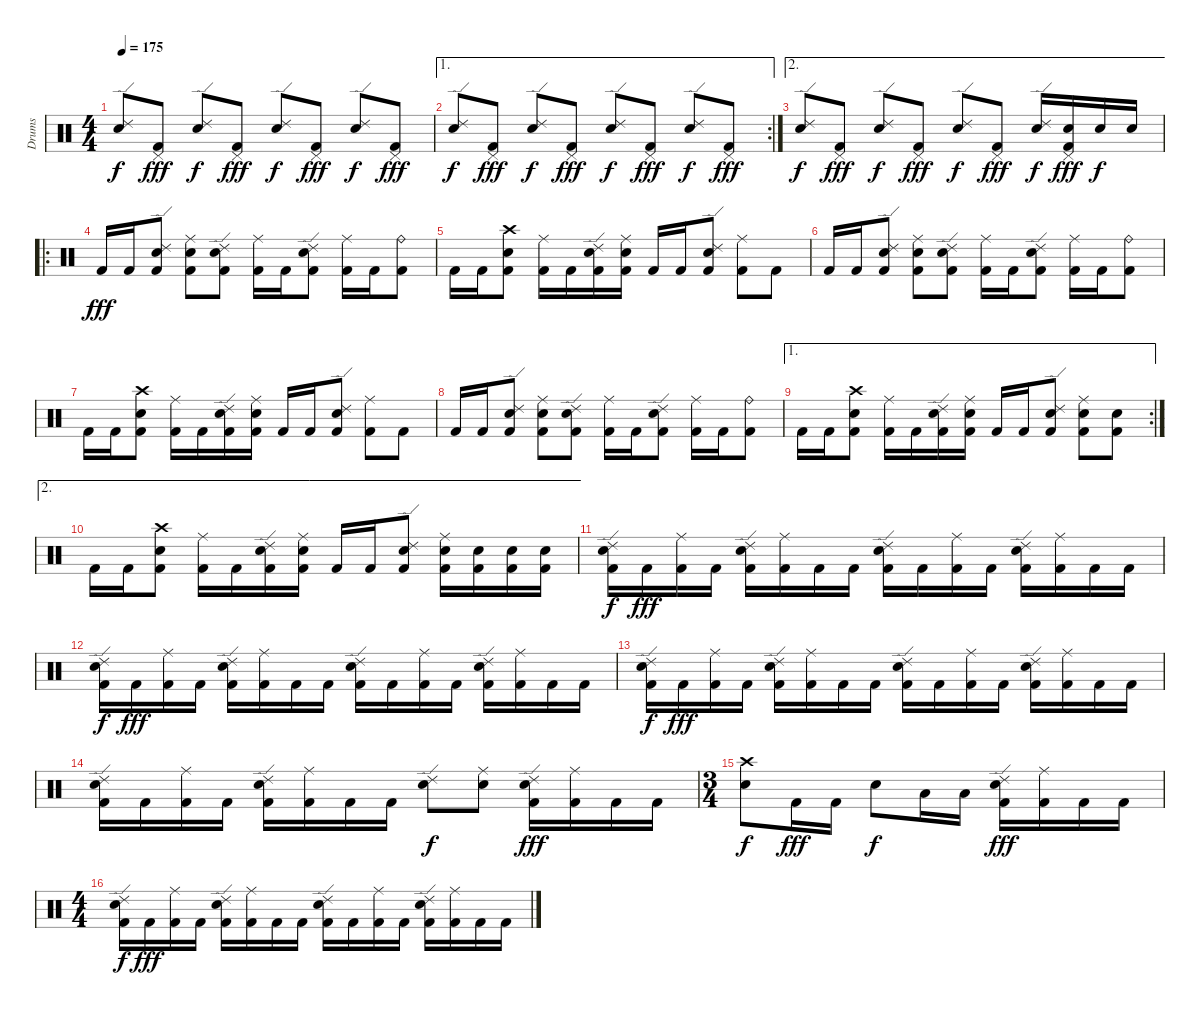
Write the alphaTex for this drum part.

\track ("Drums" "Drums") {instrument percussion}
\staff {score}
\articulation defaults
\ts (4 4)
\tempo 175
\clef neutral
\ks c
("Ride (edge) 2" "Electric Snare (hit)").8{dy f} ("Pedal Hi-Hat (hit)" "Kick (hit) 2").8{dy fff} ("Ride (edge) 2" "Electric Snare (hit)").8{dy f} ("Pedal Hi-Hat (hit)" "Kick (hit) 2").8{dy fff} ("Ride (edge) 2" "Electric Snare (hit)").8{dy f} ("Pedal Hi-Hat (hit)" "Kick (hit) 2").8{dy fff} ("Ride (edge) 2" "Electric Snare (hit)").8{dy f} ("Pedal Hi-Hat (hit)" "Kick (hit) 2").8{dy fff} |
\ae 1
\rc 2
("Ride (edge) 2" "Electric Snare (hit)").8{dy f} ("Pedal Hi-Hat (hit)" "Kick (hit) 2").8{dy fff} ("Ride (edge) 2" "Electric Snare (hit)").8{dy f} ("Pedal Hi-Hat (hit)" "Kick (hit) 2").8{dy fff} ("Ride (edge) 2" "Electric Snare (hit)").8{dy f} ("Pedal Hi-Hat (hit)" "Kick (hit) 2").8{dy fff} ("Ride (edge) 2" "Electric Snare (hit)").8{dy f} ("Pedal Hi-Hat (hit)" "Kick (hit) 2").8{dy fff} |
\ae 2
("Ride (edge) 2" "Electric Snare (hit)").8{dy f} ("Pedal Hi-Hat (hit)" "Kick (hit) 2").8{dy fff} ("Ride (edge) 2" "Electric Snare (hit)").8{dy f} ("Pedal Hi-Hat (hit)" "Kick (hit) 2").8{dy fff} ("Ride (edge) 2" "Electric Snare (hit)").8{dy f} ("Pedal Hi-Hat (hit)" "Kick (hit) 2").8{dy fff} ("Ride (edge) 2" "Electric Snare (hit)").16{dy f} ("Pedal Hi-Hat (hit)" "Electric Snare (hit)" "Kick (hit) 2").16{dy fff} "Electric Snare (hit)".16{dy f} "Electric Snare (hit)".16 |
\ro "Kick (hit) 2".16{dy fff} "Kick (hit) 2".16
("Ride (edge) 2" "Electric Snare (hit)" "Kick (hit) 2").8 ("Ride (middle)" "Electric Snare (hit)" "Kick (hit) 2").8 ("Ride (edge) 2" "Electric Snare (hit)" "Kick (hit) 2").8 ("Ride (middle)" "Kick (hit) 2").16 "Kick (hit) 2".16 ("Ride (edge) 2" "Electric Snare (hit)" "Kick (hit) 2").8 ("Ride (middle)" "Kick (hit) 2").16 "Kick (hit) 2".16 ("Ride (bell)" "Kick (hit) 2").8 |
"Kick (hit) 2".16 "Kick (hit) 2".16 ("Crash high (hit)" "Electric Snare (hit)" "Kick (hit) 2").8 ("Ride (middle)" "Kick (hit) 2").16 "Kick (hit) 2".16 ("Ride (edge) 2" "Electric Snare (hit)" "Kick (hit) 2").16 ("Ride (middle)" "Electric Snare (hit)" "Kick (hit) 2").16 "Kick (hit) 2".16 "Kick (hit) 2".16 ("Ride (edge) 2" "Electric Snare (hit)" "Kick (hit) 2").8 ("Ride (middle)" "Kick (hit) 2").8 "Kick (hit) 2".8 |
"Kick (hit) 2".16 "Kick (hit) 2".16 ("Ride (edge) 2" "Electric Snare (hit)" "Kick (hit) 2").8 ("Ride (middle)" "Electric Snare (hit)" "Kick (hit) 2").8 ("Ride (edge) 2" "Electric Snare (hit)" "Kick (hit) 2").8 ("Ride (middle)" "Kick (hit) 2").16 "Kick (hit) 2".16 ("Ride (edge) 2" "Electric Snare (hit)" "Kick (hit) 2").8 ("Ride (middle)" "Kick (hit) 2").16 "Kick (hit) 2".16 ("Ride (bell)" "Kick (hit) 2").8 |
"Kick (hit) 2".16 "Kick (hit) 2".16 ("Crash high (hit)" "Electric Snare (hit)" "Kick (hit) 2").8 ("Ride (middle)" "Kick (hit) 2").16 "Kick (hit) 2".16 ("Ride (edge) 2" "Electric Snare (hit)" "Kick (hit) 2").16 ("Ride (middle)" "Electric Snare (hit)" "Kick (hit) 2").16 "Kick (hit) 2".16 "Kick (hit) 2".16 ("Ride (edge) 2" "Electric Snare (hit)" "Kick (hit) 2").8 ("Ride (middle)" "Kick (hit) 2").8 "Kick (hit) 2".8 |
"Kick (hit) 2".16 "Kick (hit) 2".16 ("Ride (edge) 2" "Electric Snare (hit)" "Kick (hit) 2").8 ("Ride (middle)" "Electric Snare (hit)" "Kick (hit) 2").8 ("Ride (edge) 2" "Electric Snare (hit)" "Kick (hit) 2").8 ("Ride (middle)" "Kick (hit) 2").16 "Kick (hit) 2".16 ("Ride (edge) 2" "Electric Snare (hit)" "Kick (hit) 2").8 ("Ride (middle)" "Kick (hit) 2").16 "Kick (hit) 2".16 ("Ride (bell)" "Kick (hit) 2").8 |
\ae 1
\rc 2 "Kick (hit) 2".16 "Kick (hit) 2".16
("Crash high (hit)" "Electric Snare (hit)" "Kick (hit) 2").8 ("Ride (middle)" "Kick (hit) 2").16 "Kick (hit) 2".16 ("Ride (edge) 2" "Electric Snare (hit)" "Kick (hit) 2").16 ("Ride (middle)" "Electric Snare (hit)" "Kick (hit) 2").16 "Kick (hit) 2".16 "Kick (hit) 2".16 ("Ride (edge) 2" "Electric Snare (hit)" "Kick (hit) 2").8 ("Ride (middle)" "Electric Snare (hit)" "Kick (hit) 2").8 ("Electric Snare (hit)" "Kick (hit) 2").8 |
\ae 2 "Kick (hit) 2".16 "Kick (hit) 2".16
("Crash high (hit)" "Electric Snare (hit)" "Kick (hit) 2").8 ("Ride (middle)" "Kick (hit) 2").16 "Kick (hit) 2".16 ("Ride (edge) 2" "Electric Snare (hit)" "Kick (hit) 2").16 ("Ride (middle)" "Electric Snare (hit)" "Kick (hit) 2").16 "Kick (hit) 2".16 "Kick (hit) 2".16 ("Ride (edge) 2" "Electric Snare (hit)" "Kick (hit) 2").8 ("Ride (middle)" "Electric Snare (hit)" "Kick (hit) 2").16 ("Electric Snare (hit)" "Kick (hit) 2").16 ("Electric Snare (hit)" "Kick (hit) 2").16 ("Electric Snare (hit)" "Kick (hit) 2").16 |
("Ride (edge) 2" "Electric Snare (hit)" "Kick (hit) 2").16{dy f} "Kick (hit) 2".16{dy fff} ("Ride (middle)" "Kick (hit) 2").16 "Kick (hit) 2".16 ("Ride (edge) 2" "Electric Snare (hit)" "Kick (hit) 2").16 ("Ride (middle)" "Kick (hit) 2").16 "Kick (hit) 2".16 "Kick (hit) 2".16 ("Ride (edge) 2" "Electric Snare (hit)" "Kick (hit) 2").16 "Kick (hit) 2".16 ("Ride (middle)" "Kick (hit) 2").16 "Kick (hit) 2".16 ("Ride (edge) 2" "Electric Snare (hit)" "Kick (hit) 2").16 ("Ride (middle)" "Kick (hit) 2").16 "Kick (hit) 2".16 "Kick (hit) 2".16 |
("Ride (edge) 2" "Electric Snare (hit)" "Kick (hit) 2").16{dy f} "Kick (hit) 2".16{dy fff} ("Ride (middle)" "Kick (hit) 2").16 "Kick (hit) 2".16 ("Ride (edge) 2" "Electric Snare (hit)" "Kick (hit) 2").16 ("Ride (middle)" "Kick (hit) 2").16 "Kick (hit) 2".16 "Kick (hit) 2".16 ("Ride (edge) 2" "Electric Snare (hit)" "Kick (hit) 2").16 "Kick (hit) 2".16 ("Ride (middle)" "Kick (hit) 2").16 "Kick (hit) 2".16 ("Ride (edge) 2" "Electric Snare (hit)" "Kick (hit) 2").16 ("Ride (middle)" "Kick (hit) 2").16 "Kick (hit) 2".16 "Kick (hit) 2".16 |
("Ride (edge) 2" "Electric Snare (hit)" "Kick (hit) 2").16{dy f} "Kick (hit) 2".16{dy fff} ("Ride (middle)" "Kick (hit) 2").16 "Kick (hit) 2".16 ("Ride (edge) 2" "Electric Snare (hit)" "Kick (hit) 2").16 ("Ride (middle)" "Kick (hit) 2").16 "Kick (hit) 2".16 "Kick (hit) 2".16 ("Ride (edge) 2" "Electric Snare (hit)" "Kick (hit) 2").16 "Kick (hit) 2".16 ("Ride (middle)" "Kick (hit) 2").16 "Kick (hit) 2".16 ("Ride (edge) 2" "Electric Snare (hit)" "Kick (hit) 2").16 ("Ride (middle)" "Kick (hit) 2").16 "Kick (hit) 2".16 "Kick (hit) 2".16 |
("Ride (edge) 2" "Electric Snare (hit)" "Kick (hit) 2").16 "Kick (hit) 2".16 ("Ride (middle)" "Kick (hit) 2").16 "Kick (hit) 2".16 ("Ride (edge) 2" "Electric Snare (hit)" "Kick (hit) 2").16 ("Ride (middle)" "Kick (hit) 2").16 "Kick (hit) 2".16 "Kick (hit) 2".16 ("Ride (edge) 2" "Electric Snare (hit)").8{dy f} ("Ride (middle)" "Electric Snare (hit)").8 ("Ride (edge) 2" "Electric Snare (hit)" "Kick (hit) 2").16{dy fff} ("Ride (middle)" "Kick (hit) 2").16 "Kick (hit) 2".16 "Kick (hit) 2".16 |
\ts (3 4)
("Crash high (hit)" "Electric Snare (hit)").8{dy f} "Kick (hit) 2".16{dy fff} "Kick (hit) 2".16 "Electric Snare (hit)".8{dy f} "Low Tom (hit)".16 "Low Tom (hit)".16 ("Ride (edge) 2" "Electric Snare (hit)" "Kick (hit) 2").16{dy fff} ("Ride (middle)" "Kick (hit) 2").16 "Kick (hit) 2".16 "Kick (hit) 2".16 |
\ts (4 4)
("Ride (edge) 2" "Electric Snare (hit)" "Kick (hit) 2").16{dy f} "Kick (hit) 2".16{dy fff} ("Ride (middle)" "Kick (hit) 2").16 "Kick (hit) 2".16 ("Ride (edge) 2" "Electric Snare (hit)" "Kick (hit) 2").16 ("Ride (middle)" "Kick (hit) 2").16 "Kick (hit) 2".16 "Kick (hit) 2".16 ("Ride (edge) 2" "Electric Snare (hit)" "Kick (hit) 2").16 "Kick (hit) 2".16 ("Ride (middle)" "Kick (hit) 2").16 "Kick (hit) 2".16 ("Ride (edge) 2" "Electric Snare (hit)" "Kick (hit) 2").16 ("Ride (middle)" "Kick (hit) 2").16 "Kick (hit) 2".16 "Kick (hit) 2".16
